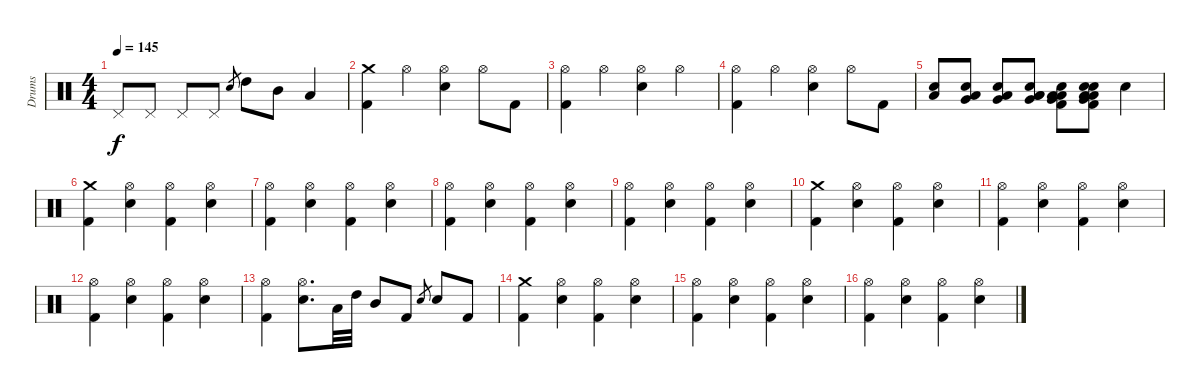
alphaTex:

\track ("Drums" "Drums") {instrument percussion}
\staff {score}
\articulation defaults
\ts (4 4)
\tempo 145
\clef neutral
\ks c "Pedal Hi-Hat (hit)".8{dy f} "Pedal Hi-Hat (hit)".8 "Pedal Hi-Hat (hit)".8 "Pedal Hi-Hat (hit)".8 "Electric Snare (hit)".8{gr} "High Tom (hit)".8 "Mid Tom (hit)".8 "Low Tom (hit)".4
|
("Crash medium (hit)" "Kick (hit) 2").4 "Hi-Hat (open)".4 ("Hi-Hat (open)" "Snare (hit) 2").4 "Hi-Hat (open)".8 "Kick (hit) 2".8 |
("Hi-Hat (open)" "Kick (hit) 2").4 "Hi-Hat (open)".4 ("Hi-Hat (open)" "Snare (hit) 2").4 "Hi-Hat (open)".4 |
("Hi-Hat (open)" "Kick (hit) 2").4 "Hi-Hat (open)".4 ("Hi-Hat (open)" "Snare (hit) 2").4 "Hi-Hat (open)".8 "Kick (hit) 2".8 |
("Snare (hit) 2" "Low Tom (hit)").8 ("Snare (hit) 2" "Low Tom (hit)" "Very Low Tom (hit)").8 ("Snare (hit) 2" "Low Tom (hit)" "Very Low Tom (hit)").8 ("Snare (hit) 2" "Low Tom (hit)" "Very Low Tom (hit)" "Low Floor Tom (hit)").8 ("Snare (hit) 2" "Low Tom (hit)" "Very Low Tom (hit)" "Low Floor Tom (hit)" "Kick (hit) 2").8 ("Snare (hit) 2" "Low Tom (hit)" "Very Low Tom (hit)" "Low Floor Tom (hit)" "Kick (hit) 2" "Electric Snare (hit)").8 "Snare (hit) 2".4 |
("Crash medium (hit)" "Kick (hit) 2").4 ("Hi-Hat (open)" "Snare (hit) 2").4 ("Hi-Hat (open)" "Kick (hit) 2").4 ("Hi-Hat (open)" "Snare (hit) 2").4 |
("Hi-Hat (open)" "Kick (hit) 2").4 ("Hi-Hat (open)" "Snare (hit) 2").4 ("Hi-Hat (open)" "Kick (hit) 2").4 ("Hi-Hat (open)" "Snare (hit) 2").4 |
("Hi-Hat (open)" "Kick (hit) 2").4 ("Hi-Hat (open)" "Snare (hit) 2").4 ("Hi-Hat (open)" "Kick (hit) 2").4 ("Hi-Hat (open)" "Snare (hit) 2").4 |
("Hi-Hat (open)" "Kick (hit) 2").4 ("Hi-Hat (open)" "Snare (hit) 2").4 ("Hi-Hat (open)" "Kick (hit) 2").4 ("Hi-Hat (open)" "Snare (hit) 2").4 |
("Crash medium (hit)" "Kick (hit) 2").4 ("Hi-Hat (open)" "Snare (hit) 2").4 ("Hi-Hat (open)" "Kick (hit) 2").4 ("Hi-Hat (open)" "Snare (hit) 2").4 |
("Hi-Hat (open)" "Kick (hit) 2").4 ("Hi-Hat (open)" "Snare (hit) 2").4 ("Hi-Hat (open)" "Kick (hit) 2").4 ("Hi-Hat (open)" "Snare (hit) 2").4 |
("Hi-Hat (open)" "Kick (hit) 2").4 ("Hi-Hat (open)" "Snare (hit) 2").4 ("Hi-Hat (open)" "Kick (hit) 2").4 ("Hi-Hat (open)" "Snare (hit) 2").4 |
("Hi-Hat (open)" "Kick (hit) 2").4 ("Hi-Hat (open)" "Snare (hit) 2").8{d} "Low Tom (hit)".32 "High Tom (hit)".32 "Mid Tom (hit)".8 "Kick (hit) 2".8 "Electric Snare (hit)".8{gr} "Snare (hit) 2".8 "Kick (hit) 2".8 |
("Crash medium (hit)" "Kick (hit) 2").4 ("Hi-Hat (open)" "Snare (hit) 2").4 ("Hi-Hat (open)" "Kick (hit) 2").4 ("Hi-Hat (open)" "Snare (hit) 2").4 |
("Hi-Hat (open)" "Kick (hit) 2").4 ("Hi-Hat (open)" "Snare (hit) 2").4 ("Hi-Hat (open)" "Kick (hit) 2").4 ("Hi-Hat (open)" "Snare (hit) 2").4 |
("Hi-Hat (open)" "Kick (hit) 2").4 ("Hi-Hat (open)" "Snare (hit) 2").4 ("Hi-Hat (open)" "Kick (hit) 2").4 ("Hi-Hat (open)" "Snare (hit) 2").4
